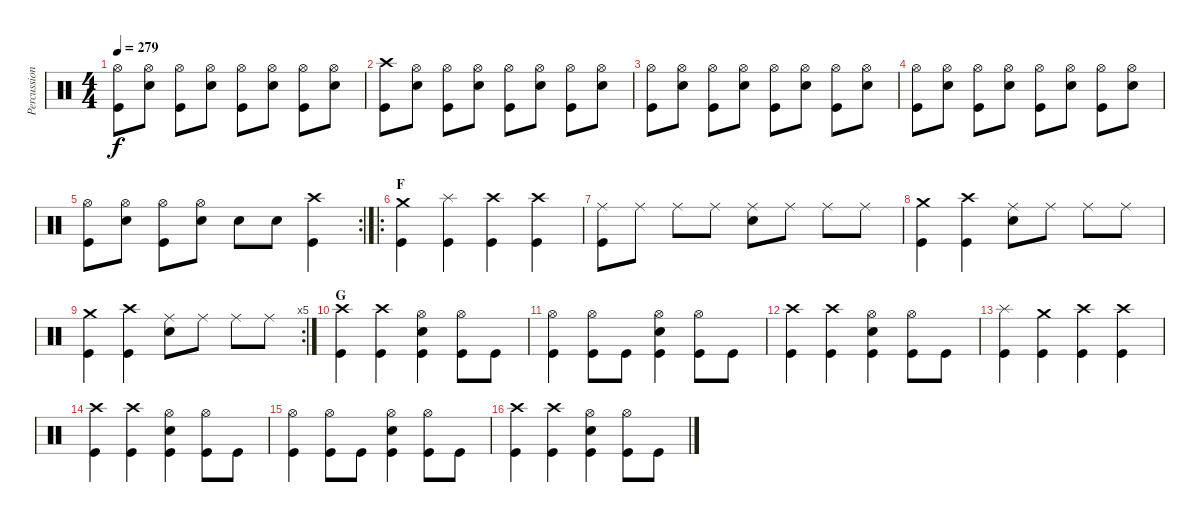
\track ("Percussion" "Percussion") {instrument percussion}
\staff {score}
\articulation defaults
\ts (4 4)
\tempo 279
\clef neutral
\ks c
("Hi-Hat (open)" "Kick (hit)").8{dy f} ("Hi-Hat (open)" "Snare (hit) 2").8 ("Hi-Hat (open)" "Kick (hit)").8 ("Hi-Hat (open)" "Snare (hit) 2").8 ("Hi-Hat (open)" "Kick (hit)").8 ("Hi-Hat (open)" "Snare (hit) 2").8 ("Hi-Hat (open)" "Kick (hit)").8 ("Hi-Hat (open)" "Snare (hit) 2").8 |
("Crash high (hit)" "Kick (hit)").8 ("Hi-Hat (open)" "Snare (hit) 2").8 ("Hi-Hat (open)" "Kick (hit)").8 ("Hi-Hat (open)" "Snare (hit) 2").8 ("Hi-Hat (open)" "Kick (hit)").8 ("Hi-Hat (open)" "Snare (hit) 2").8 ("Hi-Hat (open)" "Kick (hit)").8 ("Hi-Hat (open)" "Snare (hit) 2").8 |
("Hi-Hat (open)" "Kick (hit)").8 ("Hi-Hat (open)" "Snare (hit) 2").8 ("Hi-Hat (open)" "Kick (hit)").8 ("Hi-Hat (open)" "Snare (hit) 2").8 ("Hi-Hat (open)" "Kick (hit)").8 ("Hi-Hat (open)" "Snare (hit) 2").8 ("Hi-Hat (open)" "Kick (hit)").8 ("Hi-Hat (open)" "Snare (hit) 2").8 |
("Hi-Hat (open)" "Kick (hit)").8 ("Hi-Hat (open)" "Snare (hit) 2").8 ("Hi-Hat (open)" "Kick (hit)").8 ("Hi-Hat (open)" "Snare (hit) 2").8 ("Hi-Hat (open)" "Kick (hit)").8 ("Hi-Hat (open)" "Snare (hit) 2").8 ("Hi-Hat (open)" "Kick (hit)").8 ("Hi-Hat (open)" "Snare (hit) 2").8 |
\rc 2
("Hi-Hat (open)" "Kick (hit)").8 ("Hi-Hat (open)" "Snare (hit) 2").8 ("Hi-Hat (open)" "Kick (hit)").8 ("Hi-Hat (open)" "Snare (hit) 2").8 "Snare (hit) 2".8 "Snare (hit) 2".8 ("Crash high (hit)" "Kick (hit)").4 |
\ro
\section ("" "F")
("Crash medium (hit)" "Kick (hit)").4 ("Splash (hit)" "Kick (hit)").4 ("Crash high (hit)" "Kick (hit)").4 ("Crash high (hit)" "Kick (hit)").4 |
("Ride (middle)" "Kick (hit)").8 "Ride (middle)".8 "Ride (middle)".8 "Ride (middle)".8 ("Ride (middle)" "Snare (hit) 2").8 "Ride (middle)".8 "Ride (middle)".8 "Ride (middle)".8 |
("Crash medium (hit)" "Kick (hit)").4 ("Crash high (hit)" "Kick (hit)").4 ("Ride (middle)" "Snare (hit) 2").8 "Ride (middle)".8 "Ride (middle)".8 "Ride (middle)".8 |
\rc 5
("Crash medium (hit)" "Kick (hit)").4 ("Crash high (hit)" "Kick (hit)").4 ("Ride (middle)" "Snare (hit) 2").8 "Ride (middle)".8 "Ride (middle)".8 "Ride (middle)".8 |
\section ("" "G")
("Crash high (hit)" "Kick (hit)").4 ("Crash high (hit)" "Kick (hit)").4 ("Hi-Hat (open)" "Snare (hit) 2" "Kick (hit)").4 ("Hi-Hat (open)" "Kick (hit)").8 "Kick (hit)".8 |
("Hi-Hat (open)" "Kick (hit)").4 ("Hi-Hat (open)" "Kick (hit)").8 "Kick (hit)".8 ("Hi-Hat (open)" "Snare (hit) 2" "Kick (hit)").4 ("Hi-Hat (open)" "Kick (hit)").8 "Kick (hit)".8 |
("Crash high (hit)" "Kick (hit)").4 ("Crash high (hit)" "Kick (hit)").4 ("Hi-Hat (open)" "Snare (hit) 2" "Kick (hit)").4 ("Hi-Hat (open)" "Kick (hit)").8 "Kick (hit)".8 |
("Splash (hit)" "Kick (hit)").4 ("Crash medium (hit)" "Kick (hit)").4 ("Crash high (hit)" "Kick (hit)").4 ("Crash high (hit)" "Kick (hit)").4 |
("Crash high (hit)" "Kick (hit)").4 ("Crash high (hit)" "Kick (hit)").4 ("Hi-Hat (open)" "Snare (hit) 2" "Kick (hit)").4 ("Hi-Hat (open)" "Kick (hit)").8 "Kick (hit)".8 |
("Hi-Hat (open)" "Kick (hit)").4 ("Hi-Hat (open)" "Kick (hit)").8 "Kick (hit)".8 ("Hi-Hat (open)" "Snare (hit) 2" "Kick (hit)").4 ("Hi-Hat (open)" "Kick (hit)").8 "Kick (hit)".8 |
("Crash high (hit)" "Kick (hit)").4 ("Crash high (hit)" "Kick (hit)").4 ("Hi-Hat (open)" "Snare (hit) 2" "Kick (hit)").4 ("Hi-Hat (open)" "Kick (hit)").8 "Kick (hit)".8
